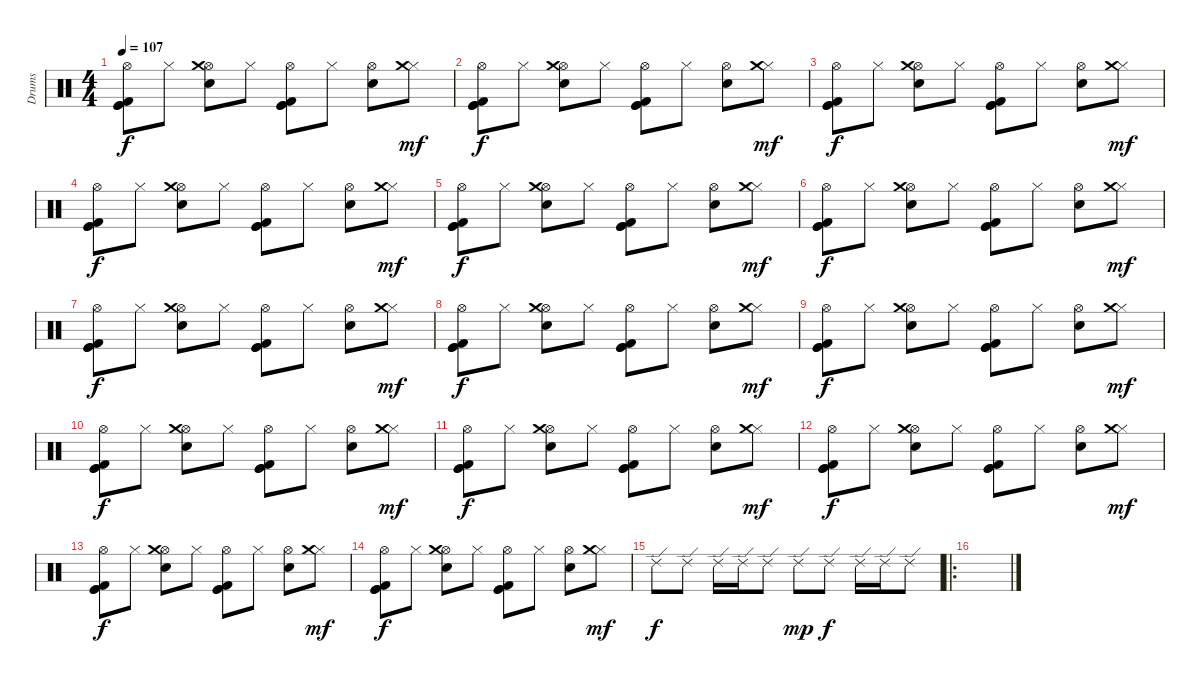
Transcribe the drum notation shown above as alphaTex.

\track ("Drums" "Drums") {instrument percussion}
\staff {score}
\articulation defaults
\ts (4 4)
\tempo 107
\clef neutral
\ks c
("Hi-Hat (open)" "Kick (hit) 2" "Kick (hit)" "Kick (hit)").8{dy f} "Hi-Hat (closed)".8 ("Hi-Hat (open)" "Crash medium (hit)" "Snare (hit) 2").8 "Hi-Hat (closed)".8 ("Hi-Hat (open)" "Kick (hit) 2" "Kick (hit)" "Kick (hit)").8 "Hi-Hat (closed)".8 ("Hi-Hat (open)" "Electric Snare (hit)").8 ("Hi-Hat (closed)" "Crash medium (hit)").8{dy mf} |
("Hi-Hat (open)" "Kick (hit) 2" "Kick (hit)" "Kick (hit)").8{dy f} "Hi-Hat (closed)".8 ("Hi-Hat (open)" "Crash medium (hit)" "Snare (hit) 2").8 "Hi-Hat (closed)".8 ("Hi-Hat (open)" "Kick (hit) 2" "Kick (hit)" "Kick (hit)").8 "Hi-Hat (closed)".8 ("Hi-Hat (open)" "Electric Snare (hit)").8 ("Hi-Hat (closed)" "Crash medium (hit)").8{dy mf} |
("Hi-Hat (open)" "Kick (hit) 2" "Kick (hit)" "Kick (hit)").8{dy f} "Hi-Hat (closed)".8 ("Hi-Hat (open)" "Crash medium (hit)" "Snare (hit) 2").8 "Hi-Hat (closed)".8 ("Hi-Hat (open)" "Kick (hit) 2" "Kick (hit)" "Kick (hit)").8 "Hi-Hat (closed)".8 ("Hi-Hat (open)" "Electric Snare (hit)").8 ("Hi-Hat (closed)" "Crash medium (hit)").8{dy mf} |
("Hi-Hat (open)" "Kick (hit) 2" "Kick (hit)" "Kick (hit)").8{dy f} "Hi-Hat (closed)".8 ("Hi-Hat (open)" "Crash medium (hit)" "Snare (hit) 2").8 "Hi-Hat (closed)".8 ("Hi-Hat (open)" "Kick (hit) 2" "Kick (hit)" "Kick (hit)").8 "Hi-Hat (closed)".8 ("Hi-Hat (open)" "Electric Snare (hit)").8 ("Hi-Hat (closed)" "Crash medium (hit)").8{dy mf} |
("Hi-Hat (open)" "Kick (hit) 2" "Kick (hit)" "Kick (hit)").8{dy f} "Hi-Hat (closed)".8 ("Hi-Hat (open)" "Crash medium (hit)" "Snare (hit) 2").8 "Hi-Hat (closed)".8 ("Hi-Hat (open)" "Kick (hit) 2" "Kick (hit)" "Kick (hit)").8 "Hi-Hat (closed)".8 ("Hi-Hat (open)" "Electric Snare (hit)").8 ("Hi-Hat (closed)" "Crash medium (hit)").8{dy mf} |
("Hi-Hat (open)" "Kick (hit) 2" "Kick (hit)" "Kick (hit)").8{dy f} "Hi-Hat (closed)".8 ("Hi-Hat (open)" "Crash medium (hit)" "Snare (hit) 2").8 "Hi-Hat (closed)".8 ("Hi-Hat (open)" "Kick (hit) 2" "Kick (hit)" "Kick (hit)").8 "Hi-Hat (closed)".8 ("Hi-Hat (open)" "Electric Snare (hit)").8 ("Hi-Hat (closed)" "Crash medium (hit)").8{dy mf} |
("Hi-Hat (open)" "Kick (hit) 2" "Kick (hit)" "Kick (hit)").8{dy f} "Hi-Hat (closed)".8 ("Hi-Hat (open)" "Crash medium (hit)" "Snare (hit) 2").8 "Hi-Hat (closed)".8 ("Hi-Hat (open)" "Kick (hit) 2" "Kick (hit)" "Kick (hit)").8 "Hi-Hat (closed)".8 ("Hi-Hat (open)" "Electric Snare (hit)").8 ("Hi-Hat (closed)" "Crash medium (hit)").8{dy mf} |
("Hi-Hat (open)" "Kick (hit) 2" "Kick (hit)" "Kick (hit)").8{dy f} "Hi-Hat (closed)".8 ("Hi-Hat (open)" "Crash medium (hit)" "Snare (hit) 2").8 "Hi-Hat (closed)".8 ("Hi-Hat (open)" "Kick (hit) 2" "Kick (hit)" "Kick (hit)").8 "Hi-Hat (closed)".8 ("Hi-Hat (open)" "Electric Snare (hit)").8 ("Hi-Hat (closed)" "Crash medium (hit)").8{dy mf} |
("Hi-Hat (open)" "Kick (hit) 2" "Kick (hit)" "Kick (hit)").8{dy f} "Hi-Hat (closed)".8 ("Hi-Hat (open)" "Crash medium (hit)" "Snare (hit) 2").8 "Hi-Hat (closed)".8 ("Hi-Hat (open)" "Kick (hit) 2" "Kick (hit)" "Kick (hit)").8 "Hi-Hat (closed)".8 ("Hi-Hat (open)" "Electric Snare (hit)").8 ("Hi-Hat (closed)" "Crash medium (hit)").8{dy mf} |
("Hi-Hat (open)" "Kick (hit) 2" "Kick (hit)" "Kick (hit)").8{dy f} "Hi-Hat (closed)".8 ("Hi-Hat (open)" "Crash medium (hit)" "Snare (hit) 2").8 "Hi-Hat (closed)".8 ("Hi-Hat (open)" "Kick (hit) 2" "Kick (hit)" "Kick (hit)").8 "Hi-Hat (closed)".8 ("Hi-Hat (open)" "Electric Snare (hit)").8 ("Hi-Hat (closed)" "Crash medium (hit)").8{dy mf} |
("Hi-Hat (open)" "Kick (hit) 2" "Kick (hit)" "Kick (hit)").8{dy f} "Hi-Hat (closed)".8 ("Hi-Hat (open)" "Crash medium (hit)" "Snare (hit) 2").8 "Hi-Hat (closed)".8 ("Hi-Hat (open)" "Kick (hit) 2" "Kick (hit)" "Kick (hit)").8 "Hi-Hat (closed)".8 ("Hi-Hat (open)" "Electric Snare (hit)").8 ("Hi-Hat (closed)" "Crash medium (hit)").8{dy mf} |
("Hi-Hat (open)" "Kick (hit) 2" "Kick (hit)" "Kick (hit)").8{dy f} "Hi-Hat (closed)".8 ("Hi-Hat (open)" "Crash medium (hit)" "Snare (hit) 2").8 "Hi-Hat (closed)".8 ("Hi-Hat (open)" "Kick (hit) 2" "Kick (hit)" "Kick (hit)").8 "Hi-Hat (closed)".8 ("Hi-Hat (open)" "Electric Snare (hit)").8 ("Hi-Hat (closed)" "Crash medium (hit)").8{dy mf} |
("Hi-Hat (open)" "Kick (hit) 2" "Kick (hit)" "Kick (hit)").8{dy f} "Hi-Hat (closed)".8 ("Hi-Hat (open)" "Crash medium (hit)" "Snare (hit) 2").8 "Hi-Hat (closed)".8 ("Hi-Hat (open)" "Kick (hit) 2" "Kick (hit)" "Kick (hit)").8 "Hi-Hat (closed)".8 ("Hi-Hat (open)" "Electric Snare (hit)").8 ("Hi-Hat (closed)" "Crash medium (hit)").8{dy mf} |
("Hi-Hat (open)" "Kick (hit) 2" "Kick (hit)" "Kick (hit)").8{dy f} "Hi-Hat (closed)".8 ("Hi-Hat (open)" "Crash medium (hit)" "Snare (hit) 2").8 "Hi-Hat (closed)".8 ("Hi-Hat (open)" "Kick (hit) 2" "Kick (hit)" "Kick (hit)").8 "Hi-Hat (closed)".8 ("Hi-Hat (open)" "Electric Snare (hit)").8 ("Hi-Hat (closed)" "Crash medium (hit)").8{dy mf} |
"Ride (edge) 2".8{dy f} "Ride (edge) 2".8 "Ride (edge) 2".16 "Ride (edge) 2".16 "Ride (edge) 2".8 "Ride (edge) 2".8{dy mp} "Ride (edge) 2".8{dy f} "Ride (edge) 2".16 "Ride (edge) 2".16 "Ride (edge) 2".8 |
\ro
